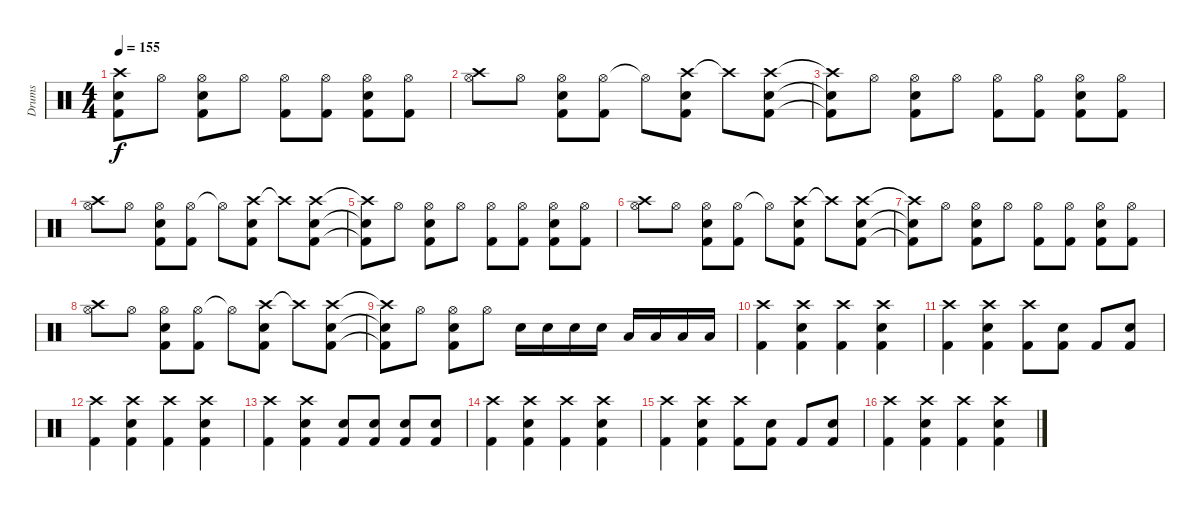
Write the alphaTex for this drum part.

\track ("Drums" "Drums") {instrument percussion}
\staff {score}
\articulation defaults
\ts (4 4)
\tempo 155
\clef neutral
\ks c
("Crash high (hit)"{t} "Kick (hit) 2"{t} "Snare (hit) 2"{t}).8{dy f} "Hi-Hat (open)".8 ("Hi-Hat (open)" "Kick (hit) 2" "Snare (hit) 2").8 "Hi-Hat (open)".8 ("Hi-Hat (open)" "Kick (hit) 2").8 ("Hi-Hat (open)" "Kick (hit) 2").8 ("Hi-Hat (open)" "Kick (hit) 2" "Snare (hit) 2").8 ("Hi-Hat (open)" "Kick (hit) 2").8 |
("Crash high (hit)" "Hi-Hat (open)").8 "Hi-Hat (open)".8 ("Hi-Hat (open)" "Kick (hit) 2" "Snare (hit) 2").8 ("Hi-Hat (open)" "Kick (hit) 2").8 "Hi-Hat (open)"{t}.8 ("Crash high (hit)" "Kick (hit) 2" "Snare (hit) 2").8 "Crash high (hit)"{t}.8 ("Crash high (hit)" "Kick (hit) 2" "Snare (hit) 2").8 |
("Crash high (hit)"{t} "Kick (hit) 2"{t} "Snare (hit) 2"{t}).8 "Hi-Hat (open)".8 ("Hi-Hat (open)" "Kick (hit) 2" "Snare (hit) 2").8 "Hi-Hat (open)".8 ("Hi-Hat (open)" "Kick (hit) 2").8 ("Hi-Hat (open)" "Kick (hit) 2").8 ("Hi-Hat (open)" "Kick (hit) 2" "Snare (hit) 2").8 ("Hi-Hat (open)" "Kick (hit) 2").8 |
("Crash high (hit)" "Hi-Hat (open)").8 "Hi-Hat (open)".8 ("Hi-Hat (open)" "Kick (hit) 2" "Snare (hit) 2").8 ("Hi-Hat (open)" "Kick (hit) 2").8 "Hi-Hat (open)"{t}.8 ("Crash high (hit)" "Kick (hit) 2" "Snare (hit) 2").8 "Crash high (hit)"{t}.8 ("Crash high (hit)" "Kick (hit) 2" "Snare (hit) 2").8 |
("Crash high (hit)"{t} "Kick (hit) 2"{t} "Snare (hit) 2"{t}).8 "Hi-Hat (open)".8 ("Hi-Hat (open)" "Kick (hit) 2" "Snare (hit) 2").8 "Hi-Hat (open)".8 ("Hi-Hat (open)" "Kick (hit) 2").8 ("Hi-Hat (open)" "Kick (hit) 2").8 ("Hi-Hat (open)" "Kick (hit) 2" "Snare (hit) 2").8 ("Hi-Hat (open)" "Kick (hit) 2").8 |
("Crash high (hit)" "Hi-Hat (open)").8 "Hi-Hat (open)".8 ("Hi-Hat (open)" "Kick (hit) 2" "Snare (hit) 2").8 ("Hi-Hat (open)" "Kick (hit) 2").8 "Hi-Hat (open)"{t}.8 ("Crash high (hit)" "Kick (hit) 2" "Snare (hit) 2").8 "Crash high (hit)"{t}.8 ("Crash high (hit)" "Kick (hit) 2" "Snare (hit) 2").8 |
("Crash high (hit)"{t} "Kick (hit) 2"{t} "Snare (hit) 2"{t}).8 "Hi-Hat (open)".8 ("Hi-Hat (open)" "Kick (hit) 2" "Snare (hit) 2").8 "Hi-Hat (open)".8 ("Hi-Hat (open)" "Kick (hit) 2").8 ("Hi-Hat (open)" "Kick (hit) 2").8 ("Hi-Hat (open)" "Kick (hit) 2" "Snare (hit) 2").8 ("Hi-Hat (open)" "Kick (hit) 2").8 |
("Crash high (hit)" "Hi-Hat (open)").8 "Hi-Hat (open)".8 ("Hi-Hat (open)" "Kick (hit) 2" "Snare (hit) 2").8 ("Hi-Hat (open)" "Kick (hit) 2").8 "Hi-Hat (open)"{t}.8 ("Crash high (hit)" "Kick (hit) 2" "Snare (hit) 2").8 "Crash high (hit)"{t}.8 ("Crash high (hit)" "Kick (hit) 2" "Snare (hit) 2").8 |
("Crash high (hit)"{t} "Kick (hit) 2"{t} "Snare (hit) 2"{t}).8 "Hi-Hat (open)".8 ("Hi-Hat (open)" "Kick (hit) 2" "Snare (hit) 2").8 "Hi-Hat (open)".8 "Snare (hit) 2".16 "Snare (hit) 2".16 "Snare (hit) 2".16 "Snare (hit) 2".16 "Low Floor Tom (hit)".16 "Low Floor Tom (hit)".16 "Low Floor Tom (hit)".16 "Low Floor Tom (hit)".16 |
("Crash high (hit)" "Kick (hit) 2").4 ("Crash high (hit)" "Snare (hit) 2" "Kick (hit) 2").4 ("Crash high (hit)" "Kick (hit) 2").4 ("Crash high (hit)" "Snare (hit) 2" "Kick (hit) 2").4 |
("Crash high (hit)" "Kick (hit) 2").4 ("Crash high (hit)" "Snare (hit) 2" "Kick (hit) 2").4 ("Crash high (hit)" "Kick (hit) 2").8 ("Snare (hit) 2" "Kick (hit) 2").8 "Kick (hit) 2".8 ("Snare (hit) 2" "Kick (hit) 2").8 |
("Crash high (hit)" "Kick (hit) 2").4 ("Crash high (hit)" "Snare (hit) 2" "Kick (hit) 2").4 ("Crash high (hit)" "Kick (hit) 2").4 ("Crash high (hit)" "Snare (hit) 2" "Kick (hit) 2").4 |
("Crash high (hit)" "Kick (hit) 2").4 ("Crash high (hit)" "Snare (hit) 2" "Kick (hit) 2").4 ("Snare (hit) 2" "Kick (hit) 2").8 ("Snare (hit) 2" "Kick (hit) 2").8 ("Snare (hit) 2" "Kick (hit) 2").8 ("Snare (hit) 2" "Kick (hit) 2").8 |
("Crash high (hit)" "Kick (hit) 2").4 ("Crash high (hit)" "Snare (hit) 2" "Kick (hit) 2").4 ("Crash high (hit)" "Kick (hit) 2").4 ("Crash high (hit)" "Snare (hit) 2" "Kick (hit) 2").4 |
("Crash high (hit)" "Kick (hit) 2").4 ("Crash high (hit)" "Snare (hit) 2" "Kick (hit) 2").4 ("Crash high (hit)" "Kick (hit) 2").8 ("Snare (hit) 2" "Kick (hit) 2").8 "Kick (hit) 2".8 ("Snare (hit) 2" "Kick (hit) 2").8 |
("Crash high (hit)" "Kick (hit) 2").4 ("Crash high (hit)" "Snare (hit) 2" "Kick (hit) 2").4 ("Crash high (hit)" "Kick (hit) 2").4 ("Crash high (hit)" "Snare (hit) 2" "Kick (hit) 2").4
